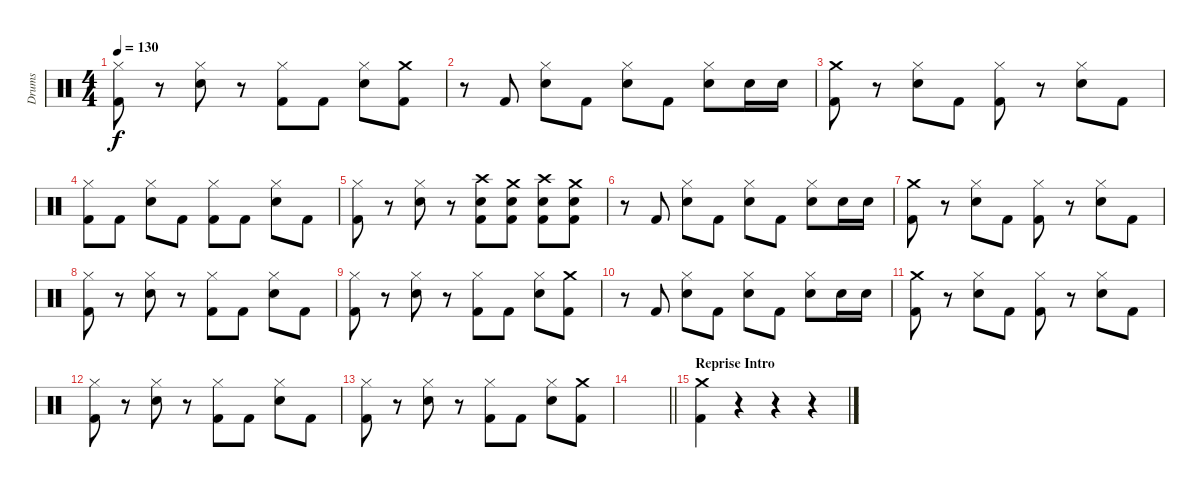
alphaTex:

\track ("Drums" "Drums") {instrument percussion}
\staff {score}
\articulation defaults
\ts (4 4)
\tempo 130
\clef neutral
\ks c
("Hi-Hat (closed)" "Kick (hit) 2").8{dy f} r.8 ("Hi-Hat (closed)" "Snare (hit) 2").8 r.8 ("Hi-Hat (closed)" "Kick (hit) 2").8 "Kick (hit) 2".8 ("Hi-Hat (closed)" "Snare (hit) 2").8 ("Crash medium (hit)" "Kick (hit) 2").8 |
r.8 "Kick (hit) 2".8 ("Hi-Hat (closed)" "Snare (hit) 2").8 "Kick (hit) 2".8 ("Hi-Hat (closed)" "Snare (hit) 2").8 "Kick (hit) 2".8 ("Hi-Hat (closed)" "Snare (hit) 2").8 "Snare (hit) 2".16 "Snare (hit) 2".16 |
("Crash medium (hit)" "Kick (hit) 2").8 r.8 ("Hi-Hat (closed)" "Snare (hit) 2").8 "Kick (hit) 2".8 ("Hi-Hat (closed)" "Kick (hit) 2").8 r.8 ("Hi-Hat (closed)" "Snare (hit) 2").8 "Kick (hit) 2".8 |
("Hi-Hat (closed)" "Kick (hit) 2").8 "Kick (hit) 2".8 ("Hi-Hat (closed)" "Snare (hit) 2").8 "Kick (hit) 2".8 ("Hi-Hat (closed)" "Kick (hit) 2").8 "Kick (hit) 2".8 ("Hi-Hat (closed)" "Snare (hit) 2").8 "Kick (hit) 2".8 |
("Hi-Hat (closed)" "Kick (hit) 2").8 r.8 ("Hi-Hat (closed)" "Snare (hit) 2").8 r.8 ("Crash high (hit)" "Snare (hit) 2" "Kick (hit) 2").8 ("Crash medium (hit)" "Snare (hit) 2" "Kick (hit) 2").8 ("Crash high (hit)" "Snare (hit) 2" "Kick (hit) 2").8 ("Crash medium (hit)" "Snare (hit) 2" "Kick (hit) 2").8 |
r.8 "Kick (hit) 2".8 ("Hi-Hat (closed)" "Snare (hit) 2").8 "Kick (hit) 2".8 ("Hi-Hat (closed)" "Snare (hit) 2").8 "Kick (hit) 2".8 ("Hi-Hat (closed)" "Snare (hit) 2").8 "Snare (hit) 2".16 "Snare (hit) 2".16 |
("Crash medium (hit)" "Kick (hit) 2").8 r.8 ("Hi-Hat (closed)" "Snare (hit) 2").8 "Kick (hit) 2".8 ("Hi-Hat (closed)" "Kick (hit) 2").8 r.8 ("Hi-Hat (closed)" "Snare (hit) 2").8 "Kick (hit) 2".8 |
("Hi-Hat (closed)" "Kick (hit) 2").8 r.8 ("Hi-Hat (closed)" "Snare (hit) 2").8 r.8 ("Hi-Hat (closed)" "Kick (hit) 2").8 "Kick (hit) 2".8 ("Hi-Hat (closed)" "Snare (hit) 2").8 "Kick (hit) 2".8 |
("Hi-Hat (closed)" "Kick (hit) 2").8 r.8 ("Hi-Hat (closed)" "Snare (hit) 2").8 r.8 ("Hi-Hat (closed)" "Kick (hit) 2").8 "Kick (hit) 2".8 ("Hi-Hat (closed)" "Snare (hit) 2").8 ("Crash medium (hit)" "Kick (hit) 2").8 |
r.8 "Kick (hit) 2".8 ("Hi-Hat (closed)" "Snare (hit) 2").8 "Kick (hit) 2".8 ("Hi-Hat (closed)" "Snare (hit) 2").8 "Kick (hit) 2".8 ("Hi-Hat (closed)" "Snare (hit) 2").8 "Snare (hit) 2".16 "Snare (hit) 2".16 |
("Crash medium (hit)" "Kick (hit) 2").8 r.8 ("Hi-Hat (closed)" "Snare (hit) 2").8 "Kick (hit) 2".8 ("Hi-Hat (closed)" "Kick (hit) 2").8 r.8 ("Hi-Hat (closed)" "Snare (hit) 2").8 "Kick (hit) 2".8 |
("Hi-Hat (closed)" "Kick (hit) 2").8 r.8 ("Hi-Hat (closed)" "Snare (hit) 2").8 r.8 ("Hi-Hat (closed)" "Kick (hit) 2").8 "Kick (hit) 2".8 ("Hi-Hat (closed)" "Snare (hit) 2").8 "Kick (hit) 2".8 |
("Hi-Hat (closed)" "Kick (hit) 2").8 r.8 ("Hi-Hat (closed)" "Snare (hit) 2").8 r.8 ("Hi-Hat (closed)" "Kick (hit) 2").8 "Kick (hit) 2".8 ("Hi-Hat (closed)" "Snare (hit) 2").8 ("Crash medium (hit)" "Kick (hit) 2").8 |
\barLineRight lightlight
|
\section ("" "Reprise Intro")
("Crash medium (hit)" "Kick (hit) 2").4 r.4 r.4 r.4
